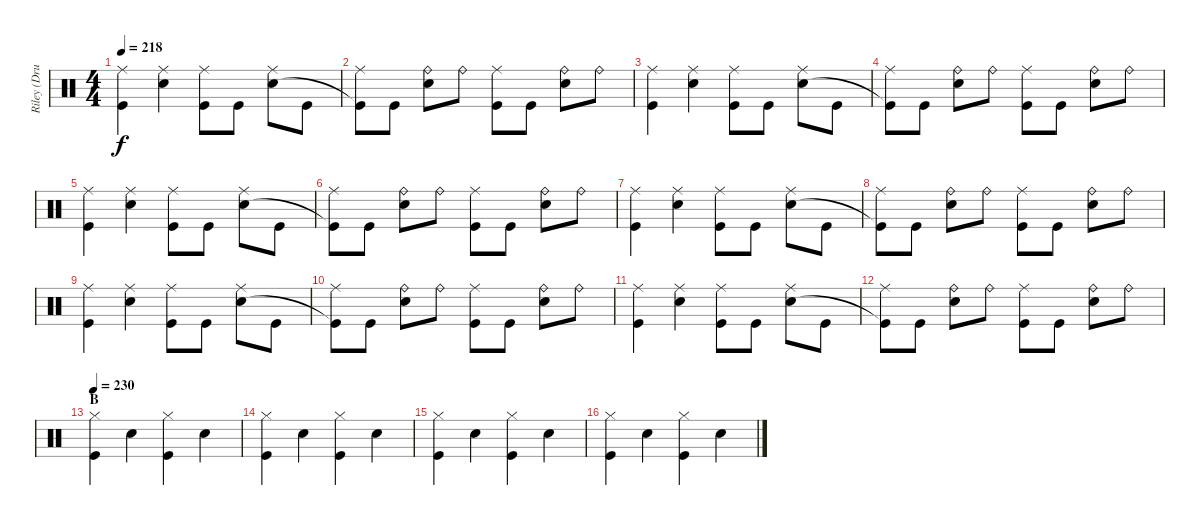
\track ("Riley (Drums)" "Riley (Dru") {instrument percussion}
\staff {score}
\articulation defaults
\ts (4 4)
\tempo 218
\clef neutral
\ks c
("Ride (middle)" "Kick (hit)").4{dy f} ("Ride (middle)" "Electric Snare (hit)").4 ("Ride (middle)" "Kick (hit)").8 "Kick (hit)".8 ("Ride (middle)" "Electric Snare (hit)").8 "Kick (hit)".8 |
("Ride (middle)" "Kick (hit)"{t}).8 "Kick (hit)".8 ("Ride (bell)" "Electric Snare (hit)").8 "Ride (bell)".8 ("Ride (middle)" "Kick (hit)").8 "Kick (hit)".8 ("Ride (bell)" "Electric Snare (hit)").8 "Ride (bell)".8 |
("Ride (middle)" "Kick (hit)").4 ("Ride (middle)" "Electric Snare (hit)").4 ("Ride (middle)" "Kick (hit)").8 "Kick (hit)".8 ("Ride (middle)" "Electric Snare (hit)").8 "Kick (hit)".8 |
("Ride (middle)" "Kick (hit)"{t}).8 "Kick (hit)".8 ("Ride (bell)" "Electric Snare (hit)").8 "Ride (bell)".8 ("Ride (middle)" "Kick (hit)").8 "Kick (hit)".8 ("Ride (bell)" "Electric Snare (hit)").8 "Ride (bell)".8 |
("Ride (middle)" "Kick (hit)").4 ("Ride (middle)" "Electric Snare (hit)").4 ("Ride (middle)" "Kick (hit)").8 "Kick (hit)".8 ("Ride (middle)" "Electric Snare (hit)").8 "Kick (hit)".8 |
("Ride (middle)" "Kick (hit)"{t}).8 "Kick (hit)".8 ("Ride (bell)" "Electric Snare (hit)").8 "Ride (bell)".8 ("Ride (middle)" "Kick (hit)").8 "Kick (hit)".8 ("Ride (bell)" "Electric Snare (hit)").8 "Ride (bell)".8 |
("Ride (middle)" "Kick (hit)").4 ("Ride (middle)" "Electric Snare (hit)").4 ("Ride (middle)" "Kick (hit)").8 "Kick (hit)".8 ("Ride (middle)" "Electric Snare (hit)").8 "Kick (hit)".8 |
("Ride (middle)" "Kick (hit)"{t}).8 "Kick (hit)".8 ("Ride (bell)" "Electric Snare (hit)").8 "Ride (bell)".8 ("Ride (middle)" "Kick (hit)").8 "Kick (hit)".8 ("Ride (bell)" "Electric Snare (hit)").8 "Ride (bell)".8 |
("Ride (middle)" "Kick (hit)").4 ("Ride (middle)" "Electric Snare (hit)").4 ("Ride (middle)" "Kick (hit)").8 "Kick (hit)".8 ("Ride (middle)" "Electric Snare (hit)").8 "Kick (hit)".8 |
("Ride (middle)" "Kick (hit)"{t}).8 "Kick (hit)".8 ("Ride (bell)" "Electric Snare (hit)").8 "Ride (bell)".8 ("Ride (middle)" "Kick (hit)").8 "Kick (hit)".8 ("Ride (bell)" "Electric Snare (hit)").8 "Ride (bell)".8 |
("Ride (middle)" "Kick (hit)").4 ("Ride (middle)" "Electric Snare (hit)").4 ("Ride (middle)" "Kick (hit)").8 "Kick (hit)".8 ("Ride (middle)" "Electric Snare (hit)").8 "Kick (hit)".8 |
("Ride (middle)" "Kick (hit)"{t}).8 "Kick (hit)".8 ("Ride (bell)" "Electric Snare (hit)").8 "Ride (bell)".8 ("Ride (middle)" "Kick (hit)").8 "Kick (hit)".8 ("Ride (bell)" "Electric Snare (hit)").8 "Ride (bell)".8 |
\section ("" "B")
\tempo 230
("Hi-Hat (closed)" "Kick (hit)").4 "Electric Snare (hit)".4 ("Hi-Hat (closed)" "Kick (hit)").4 "Electric Snare (hit)".4 |
("Hi-Hat (closed)" "Kick (hit)").4 "Electric Snare (hit)".4 ("Hi-Hat (closed)" "Kick (hit)").4 "Electric Snare (hit)".4 |
("Hi-Hat (closed)" "Kick (hit)").4 "Electric Snare (hit)".4 ("Hi-Hat (closed)" "Kick (hit)").4 "Electric Snare (hit)".4 |
("Hi-Hat (closed)" "Kick (hit)").4 "Electric Snare (hit)".4 ("Hi-Hat (closed)" "Kick (hit)").4 "Electric Snare (hit)".4
